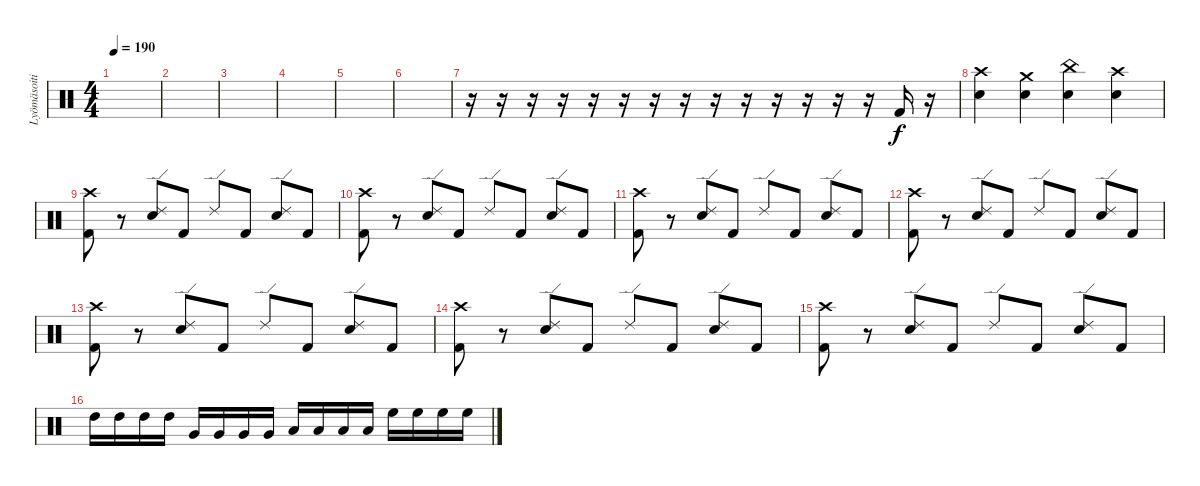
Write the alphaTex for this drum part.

\track ("Lyömäsoitin" "Lyömäsoiti") {instrument percussion}
\staff {score}
\articulation defaults
\ts (4 4)
\tempo 190
\clef neutral
\ks c
|
|
|
|
|
|
r.16 r.16 r.16 r.16 r.16 r.16 r.16 r.16 r.16 r.16 r.16 r.16 r.16 r.16 "Kick (hit) 2".16 r.16 |
("Snare (hit) 2" "Crash high (hit)").4 ("Snare (hit) 2" "Crash medium (hit)").4 ("Snare (hit) 2" "China (hit)").4 ("Snare (hit) 2" "Crash high (hit)").4 |
("Crash high (hit)" "Kick (hit) 2").8 r.8 ("Ride (edge) 2" "Electric Snare (hit)").8 "Kick (hit) 2".8 "Ride (edge) 2".8 "Kick (hit) 2".8 ("Ride (edge) 2" "Electric Snare (hit)").8 "Kick (hit) 2".8 |
("Crash high (hit)" "Kick (hit) 2").8 r.8 ("Ride (edge) 2" "Electric Snare (hit)").8 "Kick (hit) 2".8 "Ride (edge) 2".8 "Kick (hit) 2".8 ("Ride (edge) 2" "Electric Snare (hit)").8 "Kick (hit) 2".8 |
("Crash high (hit)" "Kick (hit) 2").8 r.8 ("Ride (edge) 2" "Electric Snare (hit)").8 "Kick (hit) 2".8 "Ride (edge) 2".8 "Kick (hit) 2".8 ("Ride (edge) 2" "Electric Snare (hit)").8 "Kick (hit) 2".8 |
("Crash high (hit)" "Kick (hit) 2").8 r.8 ("Ride (edge) 2" "Electric Snare (hit)").8 "Kick (hit) 2".8 "Ride (edge) 2".8 "Kick (hit) 2".8 ("Ride (edge) 2" "Electric Snare (hit)").8 "Kick (hit) 2".8 |
("Crash high (hit)" "Kick (hit) 2").8 r.8 ("Ride (edge) 2" "Electric Snare (hit)").8 "Kick (hit) 2".8 "Ride (edge) 2".8 "Kick (hit) 2".8 ("Ride (edge) 2" "Electric Snare (hit)").8 "Kick (hit) 2".8 |
("Crash high (hit)" "Kick (hit) 2").8 r.8 ("Ride (edge) 2" "Electric Snare (hit)").8 "Kick (hit) 2".8 "Ride (edge) 2".8 "Kick (hit) 2".8 ("Ride (edge) 2" "Electric Snare (hit)").8 "Kick (hit) 2".8 |
("Crash high (hit)" "Kick (hit) 2").8 r.8 ("Ride (edge) 2" "Electric Snare (hit)").8 "Kick (hit) 2".8 "Ride (edge) 2".8 "Kick (hit) 2".8 ("Ride (edge) 2" "Electric Snare (hit)").8 "Kick (hit) 2".8 |
"High Tom (hit)".16 "High Tom (hit)".16 "High Tom (hit)".16 "High Tom (hit)".16 "Very Low Tom (hit)".16 "Very Low Tom (hit)".16 "Very Low Tom (hit)".16 "Very Low Tom (hit)".16 "Low Tom (hit)".16 "Low Tom (hit)".16 "Low Tom (hit)".16 "Low Tom (hit)".16 "High Floor Tom (hit)".16 "High Floor Tom (hit)".16 "High Floor Tom (hit)".16 "High Floor Tom (hit)".16
